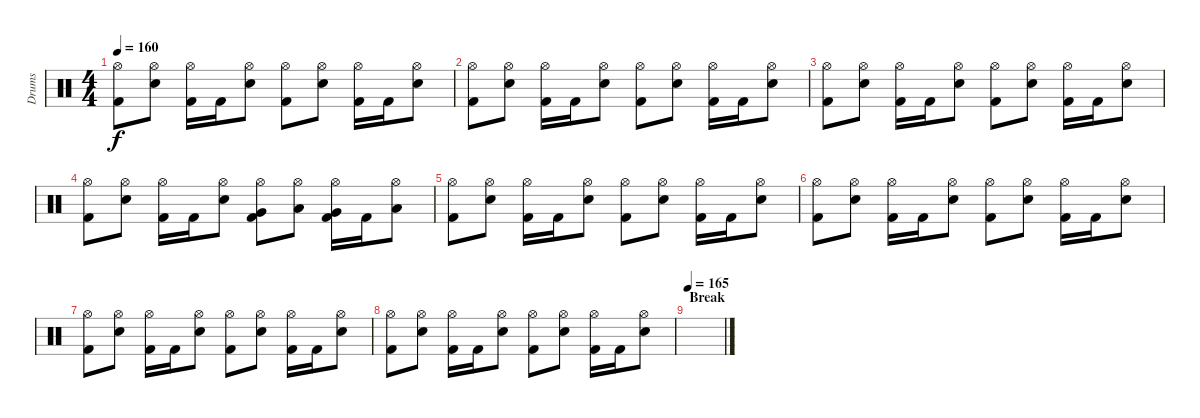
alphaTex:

\track ("Drums" "Drums") {instrument percussion}
\staff {score}
\articulation defaults
\ts (4 4)
\tempo 160
\clef neutral
\ks c
("Hi-Hat (open)" "Kick (hit) 2").8{dy f} ("Hi-Hat (open)" "Snare (hit) 2").8 ("Hi-Hat (open)" "Kick (hit) 2").16 "Kick (hit) 2".16 ("Hi-Hat (open)" "Snare (hit) 2").8 ("Hi-Hat (open)" "Kick (hit) 2").8 ("Hi-Hat (open)" "Snare (hit) 2").8 ("Hi-Hat (open)" "Kick (hit) 2").16 "Kick (hit) 2".16 ("Hi-Hat (open)" "Snare (hit) 2").8 |
("Hi-Hat (open)" "Kick (hit) 2").8 ("Hi-Hat (open)" "Snare (hit) 2").8 ("Hi-Hat (open)" "Kick (hit) 2").16 "Kick (hit) 2".16 ("Hi-Hat (open)" "Snare (hit) 2").8 ("Hi-Hat (open)" "Kick (hit) 2").8 ("Hi-Hat (open)" "Snare (hit) 2").8 ("Hi-Hat (open)" "Kick (hit) 2").16 "Kick (hit) 2".16 ("Hi-Hat (open)" "Snare (hit) 2").8 |
("Hi-Hat (open)" "Kick (hit) 2").8 ("Hi-Hat (open)" "Snare (hit) 2").8 ("Hi-Hat (open)" "Kick (hit) 2").16 "Kick (hit) 2".16 ("Hi-Hat (open)" "Snare (hit) 2").8 ("Hi-Hat (open)" "Kick (hit) 2").8 ("Hi-Hat (open)" "Snare (hit) 2").8 ("Hi-Hat (open)" "Kick (hit) 2").16 "Kick (hit) 2".16 ("Hi-Hat (open)" "Snare (hit) 2").8 |
("Hi-Hat (open)" "Kick (hit) 2").8 ("Hi-Hat (open)" "Snare (hit) 2").8 ("Hi-Hat (open)" "Kick (hit) 2").16 "Kick (hit) 2".16 ("Hi-Hat (open)" "Snare (hit) 2").8 ("Hi-Hat (open)" "Very Low Tom (hit)" "Kick (hit) 2").8 ("Hi-Hat (open)" "Low Floor Tom (hit)").8 ("Hi-Hat (open)" "Very Low Tom (hit)" "Kick (hit) 2").16 "Kick (hit) 2".16 ("Hi-Hat (open)" "Low Floor Tom (hit)").8 |
("Hi-Hat (open)" "Kick (hit) 2").8 ("Hi-Hat (open)" "Snare (hit) 2").8 ("Hi-Hat (open)" "Kick (hit) 2").16 "Kick (hit) 2".16 ("Hi-Hat (open)" "Snare (hit) 2").8 ("Hi-Hat (open)" "Kick (hit) 2").8 ("Hi-Hat (open)" "Snare (hit) 2").8 ("Hi-Hat (open)" "Kick (hit) 2").16 "Kick (hit) 2".16 ("Hi-Hat (open)" "Snare (hit) 2").8 |
("Hi-Hat (open)" "Kick (hit) 2").8 ("Hi-Hat (open)" "Snare (hit) 2").8 ("Hi-Hat (open)" "Kick (hit) 2").16 "Kick (hit) 2".16 ("Hi-Hat (open)" "Snare (hit) 2").8 ("Hi-Hat (open)" "Kick (hit) 2").8 ("Hi-Hat (open)" "Snare (hit) 2").8 ("Hi-Hat (open)" "Kick (hit) 2").16 "Kick (hit) 2".16 ("Hi-Hat (open)" "Snare (hit) 2").8 |
("Hi-Hat (open)" "Kick (hit) 2").8 ("Hi-Hat (open)" "Snare (hit) 2").8 ("Hi-Hat (open)" "Kick (hit) 2").16 "Kick (hit) 2".16 ("Hi-Hat (open)" "Snare (hit) 2").8 ("Hi-Hat (open)" "Kick (hit) 2").8 ("Hi-Hat (open)" "Snare (hit) 2").8 ("Hi-Hat (open)" "Kick (hit) 2").16 "Kick (hit) 2".16 ("Hi-Hat (open)" "Snare (hit) 2").8 |
("Hi-Hat (open)" "Kick (hit) 2").8 ("Hi-Hat (open)" "Snare (hit) 2").8 ("Hi-Hat (open)" "Kick (hit) 2").16 "Kick (hit) 2".16 ("Hi-Hat (open)" "Snare (hit) 2").8 ("Hi-Hat (open)" "Kick (hit) 2").8 ("Hi-Hat (open)" "Snare (hit) 2").8 ("Hi-Hat (open)" "Kick (hit) 2").16 "Kick (hit) 2".16 ("Hi-Hat (open)" "Snare (hit) 2").8 |
\section ("" "Break")
\tempo 165
